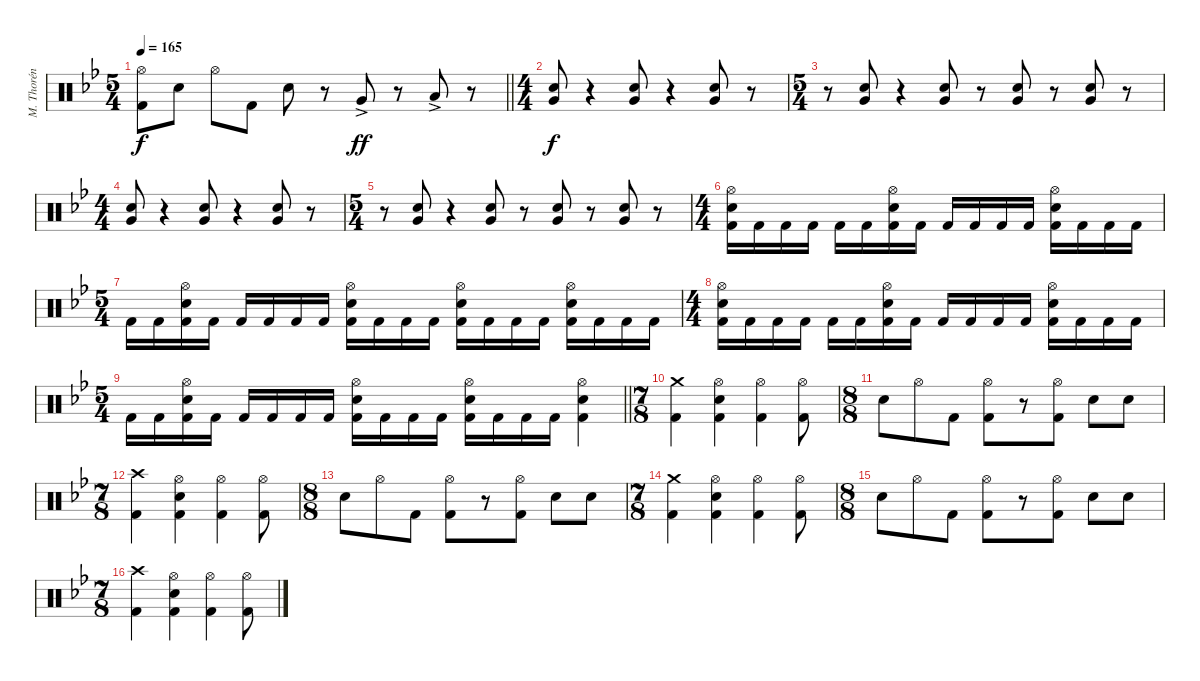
\track ("M. Thorén (Drums)" "M. Thorén ") {instrument percussion}
\staff {score}
\articulation defaults
\ts (5 4)
\tempo 165
\clef neutral
\barLineRight lightlight
\ks gminor
("Hi-Hat (open)" "Kick (hit) 2").8{dy f} "Electric Snare (hit)".8 "Hi-Hat (open)".8 "Kick (hit) 2".8 "Electric Snare (hit)".8 r.8 "Very Low Tom (hit)"{ac}.8{dy ff} r.8 "Low Floor Tom (hit)"{ac}.8 r.8 |
\ts (4 4)
("Electric Snare (hit)" "Very Low Tom (hit)").8{dy f} r.4 ("Electric Snare (hit)" "Very Low Tom (hit)").8 r.4 ("Electric Snare (hit)" "Very Low Tom (hit)").8 r.8 |
\ts (5 4)
r.8 ("Electric Snare (hit)" "Very Low Tom (hit)").8 r.4 ("Electric Snare (hit)" "Very Low Tom (hit)").8 r.8 ("Electric Snare (hit)" "Very Low Tom (hit)").8 r.8 ("Electric Snare (hit)" "Very Low Tom (hit)").8 r.8 |
\ts (4 4)
("Electric Snare (hit)" "Very Low Tom (hit)").8 r.4 ("Electric Snare (hit)" "Very Low Tom (hit)").8 r.4 ("Electric Snare (hit)" "Very Low Tom (hit)").8 r.8 |
\ts (5 4)
r.8 ("Electric Snare (hit)" "Very Low Tom (hit)").8 r.4 ("Electric Snare (hit)" "Very Low Tom (hit)").8 r.8 ("Electric Snare (hit)" "Very Low Tom (hit)").8 r.8 ("Electric Snare (hit)" "Very Low Tom (hit)").8 r.8 |
\ts (4 4)
("Hi-Hat (open)" "Electric Snare (hit)" "Kick (hit) 2").16 "Kick (hit) 2".16 "Kick (hit) 2".16 "Kick (hit) 2".16 "Kick (hit) 2".16 "Kick (hit) 2".16 ("Hi-Hat (open)" "Electric Snare (hit)" "Kick (hit) 2").16 "Kick (hit) 2".16 "Kick (hit) 2".16 "Kick (hit) 2".16 "Kick (hit) 2".16 "Kick (hit) 2".16 ("Hi-Hat (open)" "Electric Snare (hit)" "Kick (hit) 2").16 "Kick (hit) 2".16 "Kick (hit) 2".16 "Kick (hit) 2".16 |
\ts (5 4)
"Kick (hit) 2".16 "Kick (hit) 2".16 ("Hi-Hat (open)" "Electric Snare (hit)" "Kick (hit) 2").16 "Kick (hit) 2".16 "Kick (hit) 2".16 "Kick (hit) 2".16 "Kick (hit) 2".16 "Kick (hit) 2".16 ("Hi-Hat (open)" "Electric Snare (hit)" "Kick (hit) 2").16 "Kick (hit) 2".16 "Kick (hit) 2".16 "Kick (hit) 2".16 ("Hi-Hat (open)" "Electric Snare (hit)" "Kick (hit) 2").16 "Kick (hit) 2".16 "Kick (hit) 2".16 "Kick (hit) 2".16 ("Hi-Hat (open)" "Electric Snare (hit)" "Kick (hit) 2").16 "Kick (hit) 2".16 "Kick (hit) 2".16 "Kick (hit) 2".16 |
\ts (4 4)
("Hi-Hat (open)" "Electric Snare (hit)" "Kick (hit) 2").16 "Kick (hit) 2".16 "Kick (hit) 2".16 "Kick (hit) 2".16 "Kick (hit) 2".16 "Kick (hit) 2".16 ("Hi-Hat (open)" "Electric Snare (hit)" "Kick (hit) 2").16 "Kick (hit) 2".16 "Kick (hit) 2".16 "Kick (hit) 2".16 "Kick (hit) 2".16 "Kick (hit) 2".16 ("Hi-Hat (open)" "Electric Snare (hit)" "Kick (hit) 2").16 "Kick (hit) 2".16 "Kick (hit) 2".16 "Kick (hit) 2".16 |
\ts (5 4)
\barLineRight lightlight "Kick (hit) 2".16 "Kick (hit) 2".16
("Hi-Hat (open)" "Electric Snare (hit)" "Kick (hit) 2").16 "Kick (hit) 2".16 "Kick (hit) 2".16 "Kick (hit) 2".16 "Kick (hit) 2".16 "Kick (hit) 2".16 ("Hi-Hat (open)" "Electric Snare (hit)" "Kick (hit) 2").16 "Kick (hit) 2".16 "Kick (hit) 2".16 "Kick (hit) 2".16 ("Hi-Hat (open)" "Electric Snare (hit)" "Kick (hit) 2").16 "Kick (hit) 2".16 "Kick (hit) 2".16 "Kick (hit) 2".16 ("Hi-Hat (open)" "Electric Snare (hit)" "Kick (hit) 2").4 |
\ts (7 8)
("Crash medium (hit)" "Kick (hit) 2").4 ("Hi-Hat (open)" "Electric Snare (hit)" "Kick (hit) 2").4 ("Hi-Hat (open)" "Kick (hit) 2").4 ("Hi-Hat (open)" "Kick (hit) 2").8 |
\ts (8 8)
"Electric Snare (hit)".8 "Hi-Hat (open)".8 "Kick (hit) 2".8 ("Hi-Hat (open)" "Kick (hit) 2").8 r.8 ("Hi-Hat (open)" "Kick (hit) 2").8 "Electric Snare (hit)".8 "Electric Snare (hit)".8 |
\ts (7 8)
("Crash high (hit)" "Kick (hit) 2").4 ("Hi-Hat (open)" "Electric Snare (hit)" "Kick (hit) 2").4 ("Hi-Hat (open)" "Kick (hit) 2").4 ("Hi-Hat (open)" "Kick (hit) 2").8 |
\ts (8 8)
"Electric Snare (hit)".8 "Hi-Hat (open)".8 "Kick (hit) 2".8 ("Hi-Hat (open)" "Kick (hit) 2").8 r.8 ("Hi-Hat (open)" "Kick (hit) 2").8 "Electric Snare (hit)".8 "Electric Snare (hit)".8 |
\ts (7 8)
("Crash medium (hit)" "Kick (hit) 2").4 ("Hi-Hat (open)" "Electric Snare (hit)" "Kick (hit) 2").4 ("Hi-Hat (open)" "Kick (hit) 2").4 ("Hi-Hat (open)" "Kick (hit) 2").8 |
\ts (8 8)
"Electric Snare (hit)".8 "Hi-Hat (open)".8 "Kick (hit) 2".8 ("Hi-Hat (open)" "Kick (hit) 2").8 r.8 ("Hi-Hat (open)" "Kick (hit) 2").8 "Electric Snare (hit)".8 "Electric Snare (hit)".8 |
\ts (7 8)
("Crash high (hit)" "Kick (hit) 2").4 ("Hi-Hat (open)" "Electric Snare (hit)" "Kick (hit) 2").4 ("Hi-Hat (open)" "Kick (hit) 2").4 ("Hi-Hat (open)" "Kick (hit) 2").8
